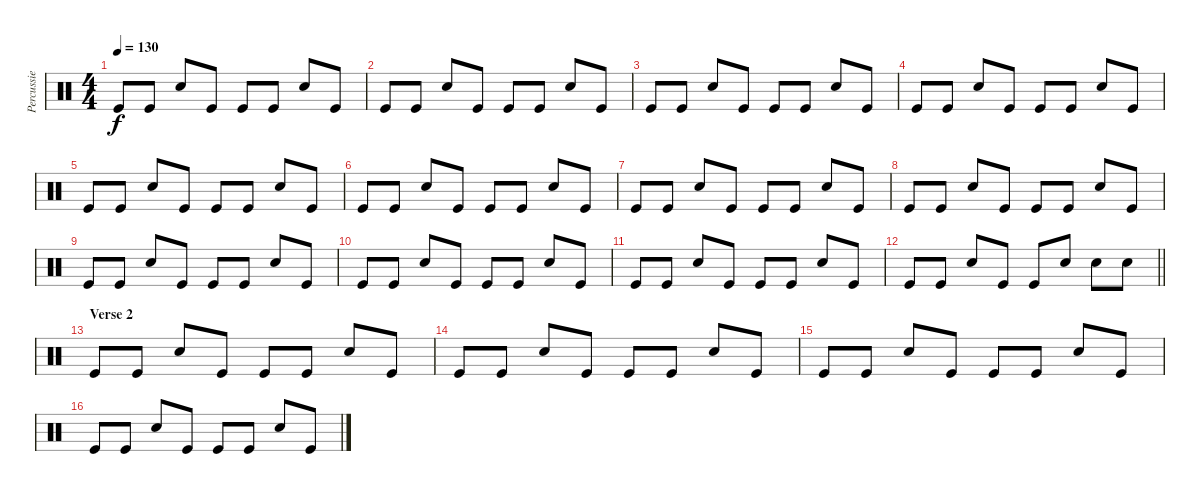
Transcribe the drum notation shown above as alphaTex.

\track ("Percussie" "Percussie") {instrument percussion}
\staff {score}
\articulation defaults
\ts (4 4)
\tempo 130
\clef neutral
\ks c "Kick (hit)".8{dy f} "Kick (hit)".8 "Snare (hit) 2".8 "Kick (hit)".8 "Kick (hit)".8 "Kick (hit)".8 "Snare (hit) 2".8 "Kick (hit)".8
|
"Kick (hit)".8 "Kick (hit)".8 "Snare (hit) 2".8 "Kick (hit)".8 "Kick (hit)".8 "Kick (hit)".8 "Snare (hit) 2".8 "Kick (hit)".8 |
"Kick (hit)".8 "Kick (hit)".8 "Snare (hit) 2".8 "Kick (hit)".8 "Kick (hit)".8 "Kick (hit)".8 "Snare (hit) 2".8 "Kick (hit)".8 |
"Kick (hit)".8 "Kick (hit)".8 "Snare (hit) 2".8 "Kick (hit)".8 "Kick (hit)".8 "Kick (hit)".8 "Snare (hit) 2".8 "Kick (hit)".8 |
"Kick (hit)".8 "Kick (hit)".8 "Snare (hit) 2".8 "Kick (hit)".8 "Kick (hit)".8 "Kick (hit)".8 "Snare (hit) 2".8 "Kick (hit)".8 |
"Kick (hit)".8 "Kick (hit)".8 "Snare (hit) 2".8 "Kick (hit)".8 "Kick (hit)".8 "Kick (hit)".8 "Snare (hit) 2".8 "Kick (hit)".8 |
"Kick (hit)".8 "Kick (hit)".8 "Snare (hit) 2".8 "Kick (hit)".8 "Kick (hit)".8 "Kick (hit)".8 "Snare (hit) 2".8 "Kick (hit)".8 |
"Kick (hit)".8 "Kick (hit)".8 "Snare (hit) 2".8 "Kick (hit)".8 "Kick (hit)".8 "Kick (hit)".8 "Snare (hit) 2".8 "Kick (hit)".8 |
"Kick (hit)".8 "Kick (hit)".8 "Snare (hit) 2".8 "Kick (hit)".8 "Kick (hit)".8 "Kick (hit)".8 "Snare (hit) 2".8 "Kick (hit)".8 |
"Kick (hit)".8 "Kick (hit)".8 "Snare (hit) 2".8 "Kick (hit)".8 "Kick (hit)".8 "Kick (hit)".8 "Snare (hit) 2".8 "Kick (hit)".8 |
"Kick (hit)".8 "Kick (hit)".8 "Snare (hit) 2".8 "Kick (hit)".8 "Kick (hit)".8 "Kick (hit)".8 "Snare (hit) 2".8 "Kick (hit)".8 |
\barLineRight lightlight "Kick (hit)".8 "Kick (hit)".8 "Snare (hit) 2".8 "Kick (hit)".8 "Kick (hit)".8 "Snare (hit) 2".8 "Snare (hit) 2".8 "Snare (hit) 2".8
|
\section ("" "Verse 2")
"Kick (hit)".8 "Kick (hit)".8 "Snare (hit) 2".8 "Kick (hit)".8 "Kick (hit)".8 "Kick (hit)".8 "Snare (hit) 2".8 "Kick (hit)".8 |
"Kick (hit)".8 "Kick (hit)".8 "Snare (hit) 2".8 "Kick (hit)".8 "Kick (hit)".8 "Kick (hit)".8 "Snare (hit) 2".8 "Kick (hit)".8 |
"Kick (hit)".8 "Kick (hit)".8 "Snare (hit) 2".8 "Kick (hit)".8 "Kick (hit)".8 "Kick (hit)".8 "Snare (hit) 2".8 "Kick (hit)".8 |
"Kick (hit)".8 "Kick (hit)".8 "Snare (hit) 2".8 "Kick (hit)".8 "Kick (hit)".8 "Kick (hit)".8 "Snare (hit) 2".8 "Kick (hit)".8
